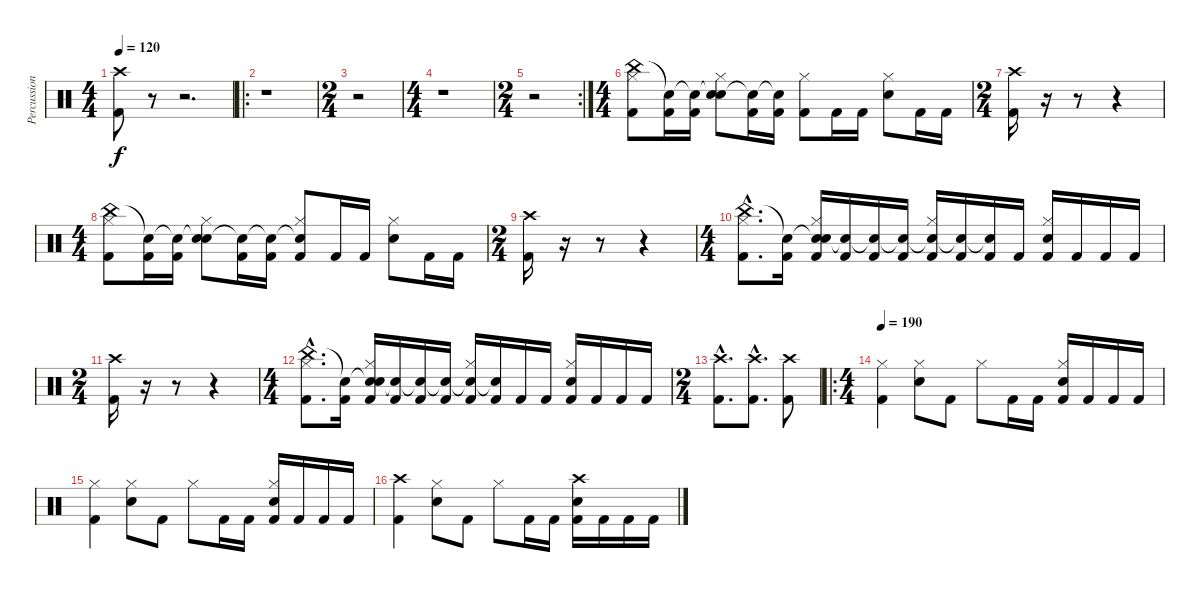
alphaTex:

\track ("Percussion" "Percussion") {instrument percussion}
\staff {score}
\articulation defaults
\ts (4 4)
\tempo 120
\clef neutral
\ks c
("Crash high (hit)" "Kick (hit) 2").8{dy f} r.8 r.2{d} |
\ro
r.1 |
\ts (2 4)
r.2 |
\ts (4 4)
r.1 |
\rc 2
\ts (2 4)
r.2 |
\ts (4 4)
("China (hit)" "Hi-Hat (closed)" "Kick (hit) 2").8 ("Snare (hit)"{t} "Kick (hit) 2").16 ("Snare (hit)"{t} "Kick (hit) 2").16 ("Snare (hit)"{t} "Hi-Hat (closed)" "Snare (hit) 2").8 ("Snare (hit)"{t} "Kick (hit) 2").16 ("Snare (hit)"{t} "Kick (hit) 2").16 ("Hi-Hat (closed)" "Kick (hit) 2").8 "Kick (hit) 2".16 "Kick (hit) 2".16 ("Hi-Hat (closed)" "Snare (hit) 2").8 "Kick (hit) 2".16 "Kick (hit) 2".16 |
\ts (2 4)
("Kick (hit) 2" "Crash high (hit)").16 r.16 r.8 r.4 |
\ts (4 4)
("China (hit)" "Hi-Hat (closed)" "Kick (hit) 2").8 ("Snare (hit)"{t} "Kick (hit) 2").16 ("Snare (hit)"{t} "Kick (hit) 2").16 ("Snare (hit)"{t} "Hi-Hat (closed)" "Snare (hit) 2").8 ("Snare (hit)"{t} "Kick (hit) 2").16 ("Snare (hit)"{t} "Kick (hit) 2").16 ("Snare (hit)"{t} "Hi-Hat (closed)" "Kick (hit) 2").8 "Kick (hit) 2".16 "Kick (hit) 2".16 ("Hi-Hat (closed)" "Snare (hit) 2").8 "Kick (hit) 2".16 "Kick (hit) 2".16 |
\ts (2 4)
("Kick (hit) 2" "Crash high (hit)").16 r.16 r.8 r.4 |
\ts (4 4)
("China (hit)"{hac} "Hi-Hat (closed)"{hac} "Kick (hit) 2"{hac}).8{d} ("Snare (hit)"{t} "Kick (hit) 2").16 ("Snare (hit)"{t} "Hi-Hat (closed)" "Snare (hit) 2" "Kick (hit) 2").16 ("Snare (hit)"{t} "Kick (hit) 2").16 ("Snare (hit)"{t} "Kick (hit) 2").16 ("Snare (hit)"{t} "Kick (hit) 2").16 ("Snare (hit)"{t} "Hi-Hat (closed)" "Kick (hit) 2").16 ("Snare (hit)"{t} "Kick (hit) 2").16 ("Snare (hit)"{t} "Kick (hit) 2").16 "Kick (hit) 2".16 ("Hi-Hat (closed)" "Snare (hit) 2" "Kick (hit) 2").16 "Kick (hit) 2".16 "Kick (hit) 2".16 "Kick (hit) 2".16 |
\ts (2 4)
("Crash high (hit)" "Kick (hit) 2").16 r.16 r.8 r.4 |
\ts (4 4)
("China (hit)"{hac} "Hi-Hat (closed)"{hac} "Kick (hit) 2"{hac}).8{d} ("Snare (hit)"{t} "Kick (hit) 2").16 ("Snare (hit)"{t} "Hi-Hat (closed)" "Snare (hit) 2" "Kick (hit) 2").16 ("Snare (hit)"{t} "Kick (hit) 2").16 ("Snare (hit)"{t} "Kick (hit) 2").16 ("Snare (hit)"{t} "Kick (hit) 2").16 ("Snare (hit)"{t} "Hi-Hat (closed)" "Kick (hit) 2").16 ("Snare (hit)"{t} "Kick (hit) 2").16 "Kick (hit) 2".16 "Kick (hit) 2".16 ("Hi-Hat (closed)" "Snare (hit) 2" "Kick (hit) 2").16 "Kick (hit) 2".16 "Kick (hit) 2".16 "Kick (hit) 2".16 |
\ts (2 4)
("Kick (hit) 2"{hac} "Crash high (hit)"{hac}).8{d} ("Kick (hit) 2"{hac} "Crash high (hit)"{hac}).8{d} ("Kick (hit) 2" "Crash high (hit)").8 |
\ro
\ts (4 4)
\tempo 190
("Hi-Hat (closed)" "Kick (hit) 2").4 ("Hi-Hat (closed)" "Snare (hit) 2").8 "Kick (hit) 2".8 "Hi-Hat (closed)".8 "Kick (hit) 2".16 "Kick (hit) 2".16 ("Hi-Hat (closed)" "Snare (hit) 2" "Kick (hit) 2").16 "Kick (hit) 2".16 "Kick (hit) 2".16 "Kick (hit) 2".16 |
("Hi-Hat (closed)" "Kick (hit) 2").4 ("Hi-Hat (closed)" "Snare (hit) 2").8 "Kick (hit) 2".8 "Hi-Hat (closed)".8 "Kick (hit) 2".16 "Kick (hit) 2".16 ("Hi-Hat (closed)" "Snare (hit) 2" "Kick (hit) 2").16 "Kick (hit) 2".16 "Kick (hit) 2".16 "Kick (hit) 2".16 |
("Crash high (hit)" "Kick (hit) 2").4 ("Hi-Hat (closed)" "Snare (hit) 2").8 "Kick (hit) 2".8 "Hi-Hat (closed)".8 "Kick (hit) 2".16 "Kick (hit) 2".16 ("Crash high (hit)" "Snare (hit) 2" "Kick (hit) 2").16 "Kick (hit) 2".16 "Kick (hit) 2".16 "Kick (hit) 2".16
